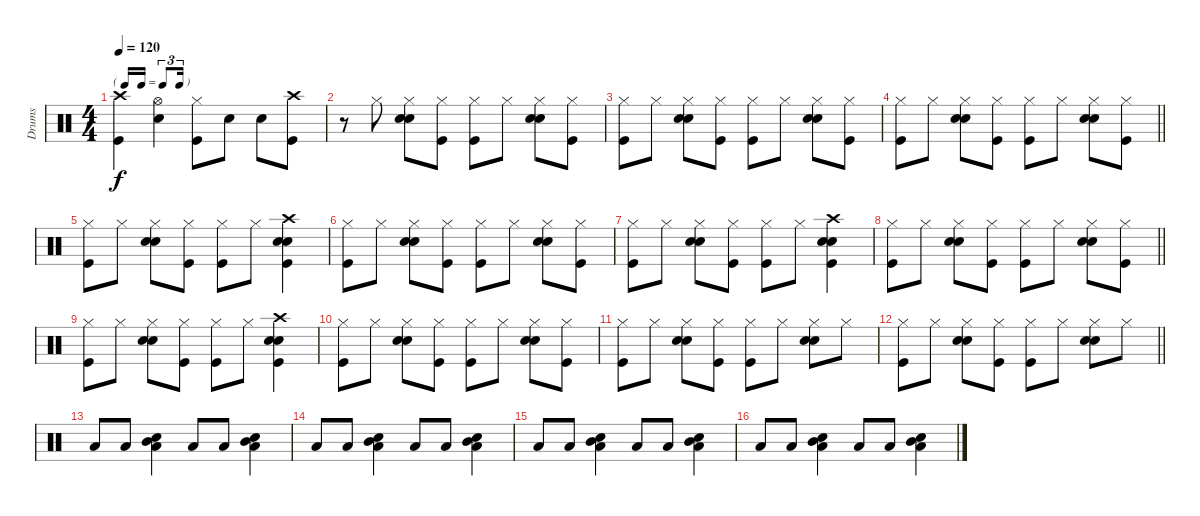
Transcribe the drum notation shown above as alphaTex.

\track ("Drums" "Drums") {instrument percussion}
\staff {score}
\articulation defaults
\ts (4 4)
\tf triplet16th
\tempo 120
\clef neutral
\ks c
("Crash high (hit)" "Kick (hit)").4{dy f} ("Hi-Hat (open)" "Snare (hit) 2").4 ("Hi-Hat (closed)" "Kick (hit)").8 "Snare (hit) 2".8 "Snare (hit) 2".8 ("Crash high (hit)" "Kick (hit)").8 |
r.8 "Hi-Hat (closed)".8 ("Hi-Hat (closed)" "Snare (hit) 2" "Hand Clap (hit)").8 ("Hi-Hat (closed)" "Kick (hit)").8 ("Hi-Hat (closed)" "Kick (hit)").8 "Hi-Hat (closed)".8 ("Hi-Hat (closed)" "Snare (hit) 2" "Hand Clap (hit)").8 ("Hi-Hat (closed)" "Kick (hit)").8 |
("Hi-Hat (closed)" "Kick (hit)").8 "Hi-Hat (closed)".8 ("Hi-Hat (closed)" "Snare (hit) 2" "Hand Clap (hit)").8 ("Hi-Hat (closed)" "Kick (hit)").8 ("Hi-Hat (closed)" "Kick (hit)").8 "Hi-Hat (closed)".8 ("Hi-Hat (closed)" "Snare (hit) 2" "Hand Clap (hit)").8 ("Hi-Hat (closed)" "Kick (hit)").8 |
\barLineRight lightlight
("Hi-Hat (closed)" "Kick (hit)").8 "Hi-Hat (closed)".8 ("Hi-Hat (closed)" "Snare (hit) 2" "Hand Clap (hit)").8 ("Hi-Hat (closed)" "Kick (hit)").8 ("Hi-Hat (closed)" "Kick (hit)").8 "Hi-Hat (closed)".8 ("Hi-Hat (closed)" "Snare (hit) 2" "Hand Clap (hit)").8 ("Hi-Hat (closed)" "Kick (hit)").8 |
("Hi-Hat (closed)" "Kick (hit)").8 "Hi-Hat (closed)".8 ("Hi-Hat (closed)" "Snare (hit) 2" "Hand Clap (hit)").8 ("Hi-Hat (closed)" "Kick (hit)").8 ("Hi-Hat (closed)" "Kick (hit)").8 "Hi-Hat (closed)".8 ("Crash high (hit)" "Snare (hit) 2" "Hand Clap (hit)" "Kick (hit)").4 |
("Hi-Hat (closed)" "Kick (hit)").8 "Hi-Hat (closed)".8 ("Hi-Hat (closed)" "Snare (hit) 2" "Hand Clap (hit)").8 ("Hi-Hat (closed)" "Kick (hit)").8 ("Hi-Hat (closed)" "Kick (hit)").8 "Hi-Hat (closed)".8 ("Hi-Hat (closed)" "Snare (hit) 2" "Hand Clap (hit)").8 ("Hi-Hat (closed)" "Kick (hit)").8 |
("Hi-Hat (closed)" "Kick (hit)").8 "Hi-Hat (closed)".8 ("Hi-Hat (closed)" "Snare (hit) 2" "Hand Clap (hit)").8 ("Hi-Hat (closed)" "Kick (hit)").8 ("Hi-Hat (closed)" "Kick (hit)").8 "Hi-Hat (closed)".8 ("Crash high (hit)" "Snare (hit) 2" "Hand Clap (hit)" "Kick (hit)").4 |
\barLineRight lightlight
("Hi-Hat (closed)" "Kick (hit)").8 "Hi-Hat (closed)".8 ("Hi-Hat (closed)" "Snare (hit) 2" "Hand Clap (hit)").8 ("Hi-Hat (closed)" "Kick (hit)").8 ("Hi-Hat (closed)" "Kick (hit)").8 "Hi-Hat (closed)".8 ("Hi-Hat (closed)" "Snare (hit) 2" "Hand Clap (hit)").8 ("Hi-Hat (closed)" "Kick (hit)").8 |
("Hi-Hat (closed)" "Kick (hit)").8 "Hi-Hat (closed)".8 ("Hi-Hat (closed)" "Snare (hit) 2" "Hand Clap (hit)").8 ("Hi-Hat (closed)" "Kick (hit)").8 ("Hi-Hat (closed)" "Kick (hit)").8 "Hi-Hat (closed)".8 ("Crash high (hit)" "Snare (hit) 2" "Hand Clap (hit)" "Kick (hit)").4 |
("Hi-Hat (closed)" "Kick (hit)").8 "Hi-Hat (closed)".8 ("Hi-Hat (closed)" "Snare (hit) 2" "Hand Clap (hit)").8 ("Hi-Hat (closed)" "Kick (hit)").8 ("Hi-Hat (closed)" "Kick (hit)").8 "Hi-Hat (closed)".8 ("Hi-Hat (closed)" "Snare (hit) 2" "Hand Clap (hit)").8 ("Hi-Hat (closed)" "Kick (hit)").8 |
("Hi-Hat (closed)" "Kick (hit)").8 "Hi-Hat (closed)".8 ("Hi-Hat (closed)" "Snare (hit) 2" "Hand Clap (hit)").8 ("Hi-Hat (closed)" "Kick (hit)").8 ("Hi-Hat (closed)" "Kick (hit)").8 "Hi-Hat (closed)".8 ("Hi-Hat (closed)" "Snare (hit) 2" "Hand Clap (hit)").8 "Hi-Hat (closed)".8 |
\barLineRight lightlight
("Hi-Hat (closed)" "Kick (hit)").8 "Hi-Hat (closed)".8 ("Hi-Hat (closed)" "Snare (hit) 2" "Hand Clap (hit)").8 ("Hi-Hat (closed)" "Kick (hit)").8 ("Hi-Hat (closed)" "Kick (hit)").8 "Hi-Hat (closed)".8 ("Hi-Hat (closed)" "Snare (hit) 2" "Hand Clap (hit)").8 "Hi-Hat (closed)".8 |
"Low Tom (hit)".8 "Low Tom (hit)".8 ("Hand Clap (hit)" "Mid Tom (hit)" "Low Tom (hit)").4 "Low Tom (hit)".8 "Low Tom (hit)".8 ("Hand Clap (hit)" "Mid Tom (hit)" "Low Tom (hit)").4 |
"Low Tom (hit)".8 "Low Tom (hit)".8 ("Hand Clap (hit)" "Mid Tom (hit)" "Low Tom (hit)").4 "Low Tom (hit)".8 "Low Tom (hit)".8 ("Hand Clap (hit)" "Mid Tom (hit)" "Low Tom (hit)").4 |
"Low Tom (hit)".8 "Low Tom (hit)".8 ("Hand Clap (hit)" "Mid Tom (hit)" "Low Tom (hit)").4 "Low Tom (hit)".8 "Low Tom (hit)".8 ("Hand Clap (hit)" "Mid Tom (hit)" "Low Tom (hit)").4 |
"Low Tom (hit)".8 "Low Tom (hit)".8 ("Hand Clap (hit)" "Mid Tom (hit)" "Low Tom (hit)").4 "Low Tom (hit)".8 "Low Tom (hit)".8 ("Hand Clap (hit)" "Mid Tom (hit)" "Low Tom (hit)").4
